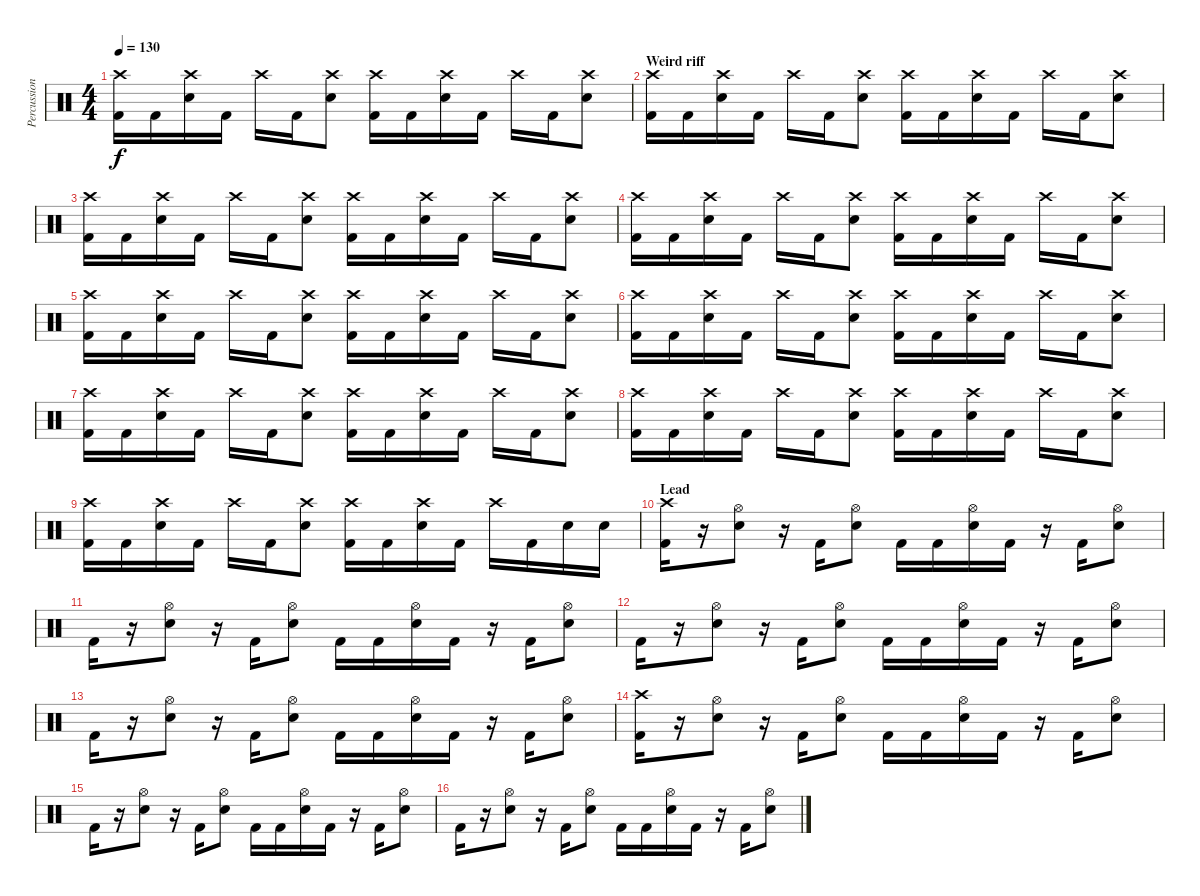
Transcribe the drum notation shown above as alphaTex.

\track ("Percussion" "Percussion") {instrument percussion}
\staff {score}
\articulation defaults
\ts (4 4)
\tempo 130
\clef neutral
\ks c
("Kick (hit) 2" "Crash high (hit)").16{dy f} "Kick (hit) 2".16 ("Electric Snare (hit)" "Crash high (hit)").16 "Kick (hit) 2".16 "Crash high (hit)".16 "Kick (hit) 2".16 ("Electric Snare (hit)" "Crash high (hit)").8 ("Kick (hit) 2" "Crash high (hit)").16 "Kick (hit) 2".16 ("Electric Snare (hit)" "Crash high (hit)").16 "Kick (hit) 2".16 "Crash high (hit)".16 "Kick (hit) 2".16 ("Electric Snare (hit)" "Crash high (hit)").8 |
\section ("" "Weird riff")
("Kick (hit) 2" "Crash high (hit)").16 "Kick (hit) 2".16 ("Electric Snare (hit)" "Crash high (hit)").16 "Kick (hit) 2".16 "Crash high (hit)".16 "Kick (hit) 2".16 ("Electric Snare (hit)" "Crash high (hit)").8 ("Kick (hit) 2" "Crash high (hit)").16 "Kick (hit) 2".16 ("Electric Snare (hit)" "Crash high (hit)").16 "Kick (hit) 2".16 "Crash high (hit)".16 "Kick (hit) 2".16 ("Electric Snare (hit)" "Crash high (hit)").8 |
("Kick (hit) 2" "Crash high (hit)").16 "Kick (hit) 2".16 ("Electric Snare (hit)" "Crash high (hit)").16 "Kick (hit) 2".16 "Crash high (hit)".16 "Kick (hit) 2".16 ("Electric Snare (hit)" "Crash high (hit)").8 ("Kick (hit) 2" "Crash high (hit)").16 "Kick (hit) 2".16 ("Electric Snare (hit)" "Crash high (hit)").16 "Kick (hit) 2".16 "Crash high (hit)".16 "Kick (hit) 2".16 ("Electric Snare (hit)" "Crash high (hit)").8 |
("Kick (hit) 2" "Crash high (hit)").16 "Kick (hit) 2".16 ("Electric Snare (hit)" "Crash high (hit)").16 "Kick (hit) 2".16 "Crash high (hit)".16 "Kick (hit) 2".16 ("Electric Snare (hit)" "Crash high (hit)").8 ("Kick (hit) 2" "Crash high (hit)").16 "Kick (hit) 2".16 ("Electric Snare (hit)" "Crash high (hit)").16 "Kick (hit) 2".16 "Crash high (hit)".16 "Kick (hit) 2".16 ("Electric Snare (hit)" "Crash high (hit)").8 |
("Kick (hit) 2" "Crash high (hit)").16 "Kick (hit) 2".16 ("Electric Snare (hit)" "Crash high (hit)").16 "Kick (hit) 2".16 "Crash high (hit)".16 "Kick (hit) 2".16 ("Electric Snare (hit)" "Crash high (hit)").8 ("Kick (hit) 2" "Crash high (hit)").16 "Kick (hit) 2".16 ("Electric Snare (hit)" "Crash high (hit)").16 "Kick (hit) 2".16 "Crash high (hit)".16 "Kick (hit) 2".16 ("Electric Snare (hit)" "Crash high (hit)").8 |
("Kick (hit) 2" "Crash high (hit)").16 "Kick (hit) 2".16 ("Electric Snare (hit)" "Crash high (hit)").16 "Kick (hit) 2".16 "Crash high (hit)".16 "Kick (hit) 2".16 ("Electric Snare (hit)" "Crash high (hit)").8 ("Kick (hit) 2" "Crash high (hit)").16 "Kick (hit) 2".16 ("Electric Snare (hit)" "Crash high (hit)").16 "Kick (hit) 2".16 "Crash high (hit)".16 "Kick (hit) 2".16 ("Electric Snare (hit)" "Crash high (hit)").8 |
("Kick (hit) 2" "Crash high (hit)").16 "Kick (hit) 2".16 ("Electric Snare (hit)" "Crash high (hit)").16 "Kick (hit) 2".16 "Crash high (hit)".16 "Kick (hit) 2".16 ("Electric Snare (hit)" "Crash high (hit)").8 ("Kick (hit) 2" "Crash high (hit)").16 "Kick (hit) 2".16 ("Electric Snare (hit)" "Crash high (hit)").16 "Kick (hit) 2".16 "Crash high (hit)".16 "Kick (hit) 2".16 ("Electric Snare (hit)" "Crash high (hit)").8 |
("Kick (hit) 2" "Crash high (hit)").16 "Kick (hit) 2".16 ("Electric Snare (hit)" "Crash high (hit)").16 "Kick (hit) 2".16 "Crash high (hit)".16 "Kick (hit) 2".16 ("Electric Snare (hit)" "Crash high (hit)").8 ("Kick (hit) 2" "Crash high (hit)").16 "Kick (hit) 2".16 ("Electric Snare (hit)" "Crash high (hit)").16 "Kick (hit) 2".16 "Crash high (hit)".16 "Kick (hit) 2".16 ("Electric Snare (hit)" "Crash high (hit)").8 |
("Kick (hit) 2" "Crash high (hit)").16 "Kick (hit) 2".16 ("Electric Snare (hit)" "Crash high (hit)").16 "Kick (hit) 2".16 "Crash high (hit)".16 "Kick (hit) 2".16 ("Electric Snare (hit)" "Crash high (hit)").8 ("Kick (hit) 2" "Crash high (hit)").16 "Kick (hit) 2".16 ("Electric Snare (hit)" "Crash high (hit)").16 "Kick (hit) 2".16 "Crash high (hit)".16 "Kick (hit) 2".16 "Electric Snare (hit)".16 "Electric Snare (hit)".16 |
\section ("" "Lead")
("Kick (hit) 2" "Crash high (hit)").16 r.16 ("Electric Snare (hit)" "Hi-Hat (open)").8 r.16 "Kick (hit) 2".16 ("Electric Snare (hit)" "Hi-Hat (open)").8 "Kick (hit) 2".16 "Kick (hit) 2".16 ("Electric Snare (hit)" "Hi-Hat (open)").16 "Kick (hit) 2".16 r.16 "Kick (hit) 2".16 ("Electric Snare (hit)" "Hi-Hat (open)").8 |
"Kick (hit) 2".16 r.16 ("Electric Snare (hit)" "Hi-Hat (open)").8 r.16 "Kick (hit) 2".16 ("Electric Snare (hit)" "Hi-Hat (open)").8 "Kick (hit) 2".16 "Kick (hit) 2".16 ("Electric Snare (hit)" "Hi-Hat (open)").16 "Kick (hit) 2".16 r.16 "Kick (hit) 2".16 ("Electric Snare (hit)" "Hi-Hat (open)").8 |
"Kick (hit) 2".16 r.16 ("Electric Snare (hit)" "Hi-Hat (open)").8 r.16 "Kick (hit) 2".16 ("Electric Snare (hit)" "Hi-Hat (open)").8 "Kick (hit) 2".16 "Kick (hit) 2".16 ("Electric Snare (hit)" "Hi-Hat (open)").16 "Kick (hit) 2".16 r.16 "Kick (hit) 2".16 ("Electric Snare (hit)" "Hi-Hat (open)").8 |
"Kick (hit) 2".16 r.16 ("Electric Snare (hit)" "Hi-Hat (open)").8 r.16 "Kick (hit) 2".16 ("Electric Snare (hit)" "Hi-Hat (open)").8 "Kick (hit) 2".16 "Kick (hit) 2".16 ("Electric Snare (hit)" "Hi-Hat (open)").16 "Kick (hit) 2".16 r.16 "Kick (hit) 2".16 ("Electric Snare (hit)" "Hi-Hat (open)").8 |
("Kick (hit) 2" "Crash high (hit)").16 r.16 ("Electric Snare (hit)" "Hi-Hat (open)").8 r.16 "Kick (hit) 2".16 ("Electric Snare (hit)" "Hi-Hat (open)").8 "Kick (hit) 2".16 "Kick (hit) 2".16 ("Electric Snare (hit)" "Hi-Hat (open)").16 "Kick (hit) 2".16 r.16 "Kick (hit) 2".16 ("Electric Snare (hit)" "Hi-Hat (open)").8 |
"Kick (hit) 2".16 r.16 ("Electric Snare (hit)" "Hi-Hat (open)").8 r.16 "Kick (hit) 2".16 ("Electric Snare (hit)" "Hi-Hat (open)").8 "Kick (hit) 2".16 "Kick (hit) 2".16 ("Electric Snare (hit)" "Hi-Hat (open)").16 "Kick (hit) 2".16 r.16 "Kick (hit) 2".16 ("Electric Snare (hit)" "Hi-Hat (open)").8 |
"Kick (hit) 2".16 r.16 ("Electric Snare (hit)" "Hi-Hat (open)").8 r.16 "Kick (hit) 2".16 ("Electric Snare (hit)" "Hi-Hat (open)").8 "Kick (hit) 2".16 "Kick (hit) 2".16 ("Electric Snare (hit)" "Hi-Hat (open)").16 "Kick (hit) 2".16 r.16 "Kick (hit) 2".16 ("Electric Snare (hit)" "Hi-Hat (open)").8
